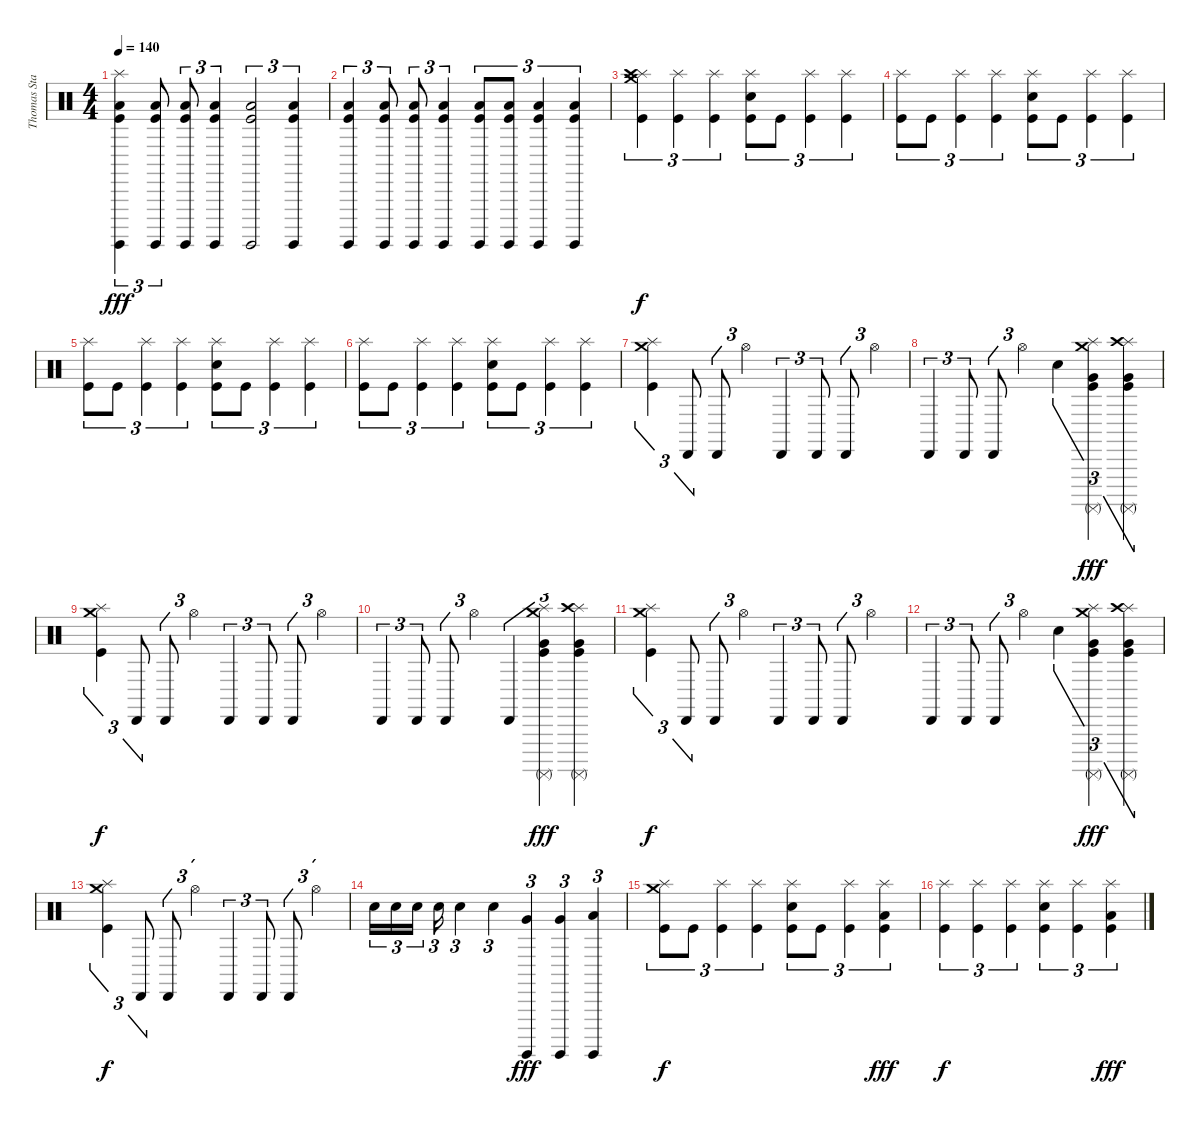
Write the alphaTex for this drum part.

\track ("Thomas Stauch" "Thomas Sta") {instrument percussion}
\staff {score}
\articulation defaults
\ts (4 4)
\tempo 140
\clef neutral
\ks c
("Splash (hit)" "Surdo (hit)" "Low Floor Tom (hit)" "Kick (hit)").4{tu (3 2) dy fff} ("Surdo (hit)" "Low Floor Tom (hit)" "Kick (hit)").8{tu (3 2)} ("Surdo (hit)" "Low Floor Tom (hit)" "Kick (hit)").8{tu (3 2)} ("Surdo (hit)" "Low Floor Tom (hit)" "Kick (hit)").4{tu (3 2)} ("Surdo (hit)" "Low Floor Tom (hit)" "Kick (hit)").2{tu (3 2)} ("Surdo (hit)" "Low Floor Tom (hit)" "Kick (hit)").4{tu (3 2)} |
("Surdo (hit)" "Low Floor Tom (hit)" "Kick (hit)").4{tu (3 2)} ("Surdo (hit)" "Low Floor Tom (hit)" "Kick (hit)").8{tu (3 2)} ("Surdo (hit)" "Low Floor Tom (hit)" "Kick (hit)").8{tu (3 2)} ("Surdo (hit)" "Low Floor Tom (hit)" "Kick (hit)").4{tu (3 2)} ("Surdo (hit)" "Low Floor Tom (hit)" "Kick (hit)").8{tu (3 2)} ("Surdo (hit)" "Low Floor Tom (hit)" "Kick (hit)").8{tu (3 2)} ("Surdo (hit)" "Low Floor Tom (hit)" "Kick (hit)").4{tu (3 2)} ("Surdo (hit)" "Low Floor Tom (hit)" "Kick (hit)").4{tu (3 2)} |
("Crash medium (hit)" "Splash (hit)" "Crash high (hit)" "Kick (hit)").4{tu (3 2) dy f} ("Splash (hit)" "Kick (hit)").4{tu (3 2)} ("Splash (hit)" "Kick (hit)").4{tu (3 2)} ("Splash (hit)" "Electric Snare (hit)" "Kick (hit)").8{tu (3 2)} "Kick (hit)".8{tu (3 2)} ("Splash (hit)" "Kick (hit)").4{tu (3 2)} ("Splash (hit)" "Kick (hit)").4{tu (3 2)} |
("Splash (hit)" "Kick (hit)").8{tu (3 2)} "Kick (hit)".8{tu (3 2)} ("Splash (hit)" "Kick (hit)").4{tu (3 2)} ("Splash (hit)" "Kick (hit)").4{tu (3 2)} ("Splash (hit)" "Electric Snare (hit)" "Kick (hit)").8{tu (3 2)} "Kick (hit)".8{tu (3 2)} ("Splash (hit)" "Kick (hit)").4{tu (3 2)} ("Splash (hit)" "Kick (hit)").4{tu (3 2)} |
("Splash (hit)" "Kick (hit)").8{tu (3 2)} "Kick (hit)".8{tu (3 2)} ("Splash (hit)" "Kick (hit)").4{tu (3 2)} ("Splash (hit)" "Kick (hit)").4{tu (3 2)} ("Splash (hit)" "Electric Snare (hit)" "Kick (hit)").8{tu (3 2)} "Kick (hit)".8{tu (3 2)} ("Splash (hit)" "Kick (hit)").4{tu (3 2)} ("Splash (hit)" "Kick (hit)").4{tu (3 2)} |
("Splash (hit)" "Kick (hit)").8{tu (3 2)} "Kick (hit)".8{tu (3 2)} ("Splash (hit)" "Kick (hit)").4{tu (3 2)} ("Splash (hit)" "Kick (hit)").4{tu (3 2)} ("Splash (hit)" "Electric Snare (hit)" "Kick (hit)").8{tu (3 2)} "Kick (hit)".8{tu (3 2)} ("Splash (hit)" "Kick (hit)").4{tu (3 2)} ("Splash (hit)" "Kick (hit)").4{tu (3 2)} |
("Crash medium (hit)" "Splash (hit)" "Kick (hit)").4{tu (3 2)} "Cabasa (hit)".8{tu (3 2)} "Cabasa (hit)".8{tu (3 2)} "Hi-Hat (open)".4{tu (3 2)} "Cabasa (hit)".4{tu (3 2)} "Cabasa (hit)".8{tu (3 2)} "Cabasa (hit)".8{tu (3 2)} "Hi-Hat (open)".4{tu (3 2)} |
"Cabasa (hit)".4{tu (3 2)} "Cabasa (hit)".8{tu (3 2)} "Cabasa (hit)".8{tu (3 2)} "Hi-Hat (open)".4{tu (3 2)} "Electric Snare (hit)".4{tu (3 2)} ("Crash medium (hit)" "Splash (hit)" "Surdo (mute)" "Very Low Tom (hit)" "Kick (hit)").4{tu (3 2) dy fff} ("Splash (hit)" "Crash high (hit)" "Surdo (mute)" "Very Low Tom (hit)" "Kick (hit)").4{tu (3 2)} |
("Crash medium (hit)" "Splash (hit)" "Kick (hit)").4{tu (3 2) dy f} "Cabasa (hit)".8{tu (3 2)} "Cabasa (hit)".8{tu (3 2)} "Hi-Hat (open)".4{tu (3 2)} "Cabasa (hit)".4{tu (3 2)} "Cabasa (hit)".8{tu (3 2)} "Cabasa (hit)".8{tu (3 2)} "Hi-Hat (open)".4{tu (3 2)} |
"Cabasa (hit)".4{tu (3 2)} "Cabasa (hit)".8{tu (3 2)} "Cabasa (hit)".8{tu (3 2)} "Hi-Hat (open)".4{tu (3 2)} "Cabasa (hit)".4{tu (3 2)} ("Crash medium (hit)" "Splash (hit)" "Surdo (mute)" "Very Low Tom (hit)" "Kick (hit)").4{tu (3 2) dy fff} ("Splash (hit)" "Crash high (hit)" "Surdo (mute)" "Very Low Tom (hit)" "Kick (hit)").4{tu (3 2)} |
("Crash medium (hit)" "Splash (hit)" "Kick (hit)").4{tu (3 2) dy f} "Cabasa (hit)".8{tu (3 2)} "Cabasa (hit)".8{tu (3 2)} "Hi-Hat (open)".4{tu (3 2)} "Cabasa (hit)".4{tu (3 2)} "Cabasa (hit)".8{tu (3 2)} "Cabasa (hit)".8{tu (3 2)} "Hi-Hat (open)".4{tu (3 2)} |
"Cabasa (hit)".4{tu (3 2)} "Cabasa (hit)".8{tu (3 2)} "Cabasa (hit)".8{tu (3 2)} "Hi-Hat (open)".4{tu (3 2)} "Electric Snare (hit)".4{tu (3 2)} ("Crash medium (hit)" "Splash (hit)" "Surdo (mute)" "Very Low Tom (hit)" "Kick (hit)").4{tu (3 2) dy fff} ("Splash (hit)" "Crash high (hit)" "Surdo (mute)" "Very Low Tom (hit)" "Kick (hit)").4{tu (3 2)} |
("Crash medium (hit)" "Splash (hit)" "Kick (hit)").4{tu (3 2) dy f} "Cabasa (hit)".8{tu (3 2)} "Cabasa (hit)".8{tu (3 2)} "Hi-Hat (open)".4{tu (3 2)} "Cabasa (hit)".4{tu (3 2)} "Cabasa (hit)".8{tu (3 2)} "Cabasa (hit)".8{tu (3 2)} "Hi-Hat (open)".4{tu (3 2)} |
"Electric Snare (hit)".16{tu (3 2)} "Electric Snare (hit)".16{tu (3 2)} "Electric Snare (hit)".16{tu (3 2)} "Electric Snare (hit)".16{tu (3 2)} "Electric Snare (hit)".4{tu (3 2)} "Electric Snare (hit)".4{tu (3 2)} ("Surdo (hit)" "Very Low Tom (hit)").4{tu (3 2) dy fff} ("Surdo (hit)" "Very Low Tom (hit)").4{tu (3 2)} ("Surdo (hit)" "Low Floor Tom (hit)").4{tu (3 2)} |
("Crash medium (hit)" "Splash (hit)" "Kick (hit)").8{tu (3 2) dy f} "Kick (hit)".8{tu (3 2)} ("Splash (hit)" "Kick (hit)").4{tu (3 2)} ("Splash (hit)" "Kick (hit)").4{tu (3 2)} ("Splash (hit)" "Electric Snare (hit)" "Kick (hit)").8{tu (3 2)} "Kick (hit)".8{tu (3 2)} ("Splash (hit)" "Kick (hit)").4{tu (3 2)} ("Splash (hit)" "Low Floor Tom (hit)" "Kick (hit)").4{tu (3 2) dy fff} |
("Splash (hit)" "Kick (hit)").4{tu (3 2) dy f} ("Splash (hit)" "Kick (hit)").4{tu (3 2)} ("Splash (hit)" "Kick (hit)").4{tu (3 2)} ("Splash (hit)" "Electric Snare (hit)" "Kick (hit)").4{tu (3 2)} ("Splash (hit)" "Kick (hit)").4{tu (3 2)} ("Splash (hit)" "Low Floor Tom (hit)" "Kick (hit)").4{tu (3 2) dy fff}
